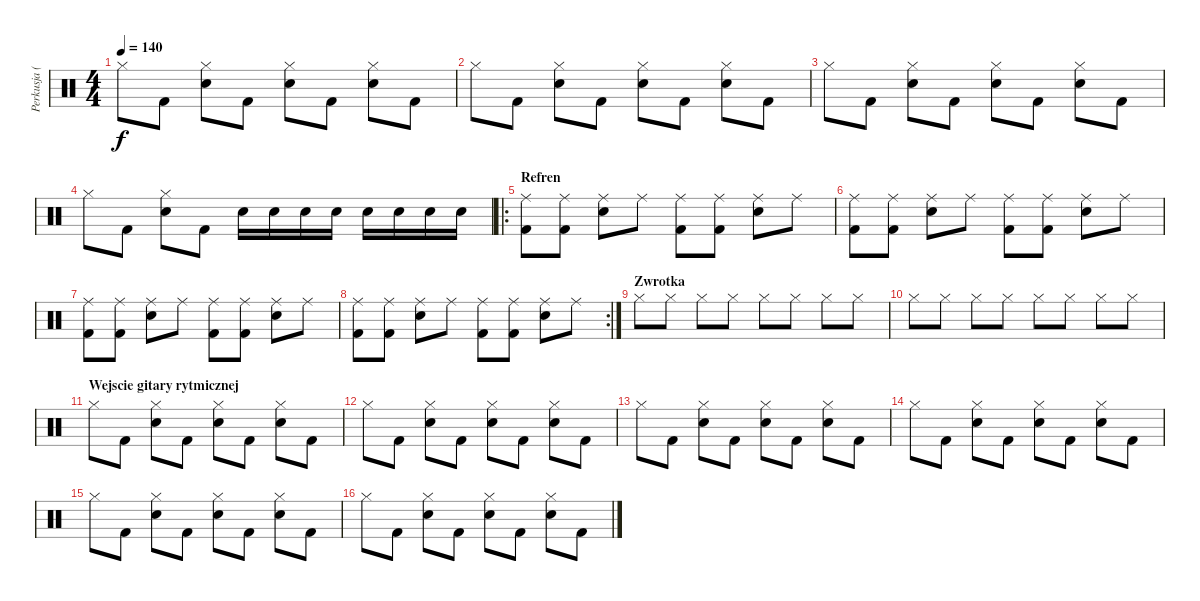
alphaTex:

\track ("Perkusja (Piejo)" "Perkusja (") {instrument percussion}
\staff {score}
\articulation defaults
\ts (4 4)
\tempo 140
\clef neutral
\ks c "Hi-Hat (closed)".8{dy f} "Kick (hit) 2".8
("Hi-Hat (closed)" "Electric Snare (hit)").8 "Kick (hit) 2".8 ("Hi-Hat (closed)" "Electric Snare (hit)").8 "Kick (hit) 2".8 ("Hi-Hat (closed)" "Electric Snare (hit)").8 "Kick (hit) 2".8 |
"Hi-Hat (closed)".8 "Kick (hit) 2".8 ("Hi-Hat (closed)" "Electric Snare (hit)").8 "Kick (hit) 2".8 ("Hi-Hat (closed)" "Electric Snare (hit)").8 "Kick (hit) 2".8 ("Hi-Hat (closed)" "Electric Snare (hit)").8 "Kick (hit) 2".8 |
"Hi-Hat (closed)".8 "Kick (hit) 2".8 ("Hi-Hat (closed)" "Electric Snare (hit)").8 "Kick (hit) 2".8 ("Hi-Hat (closed)" "Electric Snare (hit)").8 "Kick (hit) 2".8 ("Hi-Hat (closed)" "Electric Snare (hit)").8 "Kick (hit) 2".8 |
"Hi-Hat (closed)".8 "Kick (hit) 2".8 ("Hi-Hat (closed)" "Electric Snare (hit)").8 "Kick (hit) 2".8 "Electric Snare (hit)".16 "Electric Snare (hit)".16 "Electric Snare (hit)".16 "Electric Snare (hit)".16 "Electric Snare (hit)".16 "Electric Snare (hit)".16 "Electric Snare (hit)".16 "Electric Snare (hit)".16 |
\ro
\section ("" "Refren")
("Ride (middle)" "Kick (hit) 2").8 ("Ride (middle)" "Kick (hit) 2").8 ("Ride (middle)" "Electric Snare (hit)").8 "Ride (middle)".8 ("Kick (hit) 2" "Ride (middle)").8 ("Ride (middle)" "Kick (hit) 2").8 ("Ride (middle)" "Electric Snare (hit)").8 "Ride (middle)".8 |
("Ride (middle)" "Kick (hit) 2").8 ("Ride (middle)" "Kick (hit) 2").8 ("Ride (middle)" "Electric Snare (hit)").8 "Ride (middle)".8 ("Kick (hit) 2" "Ride (middle)").8 ("Ride (middle)" "Kick (hit) 2").8 ("Ride (middle)" "Electric Snare (hit)").8 "Ride (middle)".8 |
("Ride (middle)" "Kick (hit) 2").8 ("Ride (middle)" "Kick (hit) 2").8 ("Ride (middle)" "Electric Snare (hit)").8 "Ride (middle)".8 ("Kick (hit) 2" "Ride (middle)").8 ("Ride (middle)" "Kick (hit) 2").8 ("Ride (middle)" "Electric Snare (hit)").8 "Ride (middle)".8 |
\rc 2
("Ride (middle)" "Kick (hit) 2").8 ("Ride (middle)" "Kick (hit) 2").8 ("Ride (middle)" "Electric Snare (hit)").8 "Ride (middle)".8 ("Kick (hit) 2" "Ride (middle)").8 ("Ride (middle)" "Kick (hit) 2").8 ("Ride (middle)" "Electric Snare (hit)").8 "Ride (middle)".8 |
\section ("" "Zwrotka")
"Hi-Hat (closed)".8 "Hi-Hat (closed)".8 "Hi-Hat (closed)".8 "Hi-Hat (closed)".8 "Hi-Hat (closed)".8 "Hi-Hat (closed)".8 "Hi-Hat (closed)".8 "Hi-Hat (closed)".8 |
"Hi-Hat (closed)".8 "Hi-Hat (closed)".8 "Hi-Hat (closed)".8 "Hi-Hat (closed)".8 "Hi-Hat (closed)".8 "Hi-Hat (closed)".8 "Hi-Hat (closed)".8 "Hi-Hat (closed)".8 |
\section ("" "Wejscie gitary rytmicznej")
"Hi-Hat (closed)".8 "Kick (hit) 2".8 ("Hi-Hat (closed)" "Electric Snare (hit)").8 "Kick (hit) 2".8 ("Hi-Hat (closed)" "Electric Snare (hit)").8 "Kick (hit) 2".8 ("Hi-Hat (closed)" "Electric Snare (hit)").8 "Kick (hit) 2".8 |
"Hi-Hat (closed)".8 "Kick (hit) 2".8 ("Hi-Hat (closed)" "Electric Snare (hit)").8 "Kick (hit) 2".8 ("Hi-Hat (closed)" "Electric Snare (hit)").8 "Kick (hit) 2".8 ("Hi-Hat (closed)" "Electric Snare (hit)").8 "Kick (hit) 2".8 |
"Hi-Hat (closed)".8 "Kick (hit) 2".8 ("Hi-Hat (closed)" "Electric Snare (hit)").8 "Kick (hit) 2".8 ("Hi-Hat (closed)" "Electric Snare (hit)").8 "Kick (hit) 2".8 ("Hi-Hat (closed)" "Electric Snare (hit)").8 "Kick (hit) 2".8 |
"Hi-Hat (closed)".8 "Kick (hit) 2".8 ("Hi-Hat (closed)" "Electric Snare (hit)").8 "Kick (hit) 2".8 ("Hi-Hat (closed)" "Electric Snare (hit)").8 "Kick (hit) 2".8 ("Hi-Hat (closed)" "Electric Snare (hit)").8 "Kick (hit) 2".8 |
"Hi-Hat (closed)".8 "Kick (hit) 2".8 ("Hi-Hat (closed)" "Electric Snare (hit)").8 "Kick (hit) 2".8 ("Hi-Hat (closed)" "Electric Snare (hit)").8 "Kick (hit) 2".8 ("Hi-Hat (closed)" "Electric Snare (hit)").8 "Kick (hit) 2".8 |
"Hi-Hat (closed)".8 "Kick (hit) 2".8 ("Hi-Hat (closed)" "Electric Snare (hit)").8 "Kick (hit) 2".8 ("Hi-Hat (closed)" "Electric Snare (hit)").8 "Kick (hit) 2".8 ("Hi-Hat (closed)" "Electric Snare (hit)").8 "Kick (hit) 2".8
